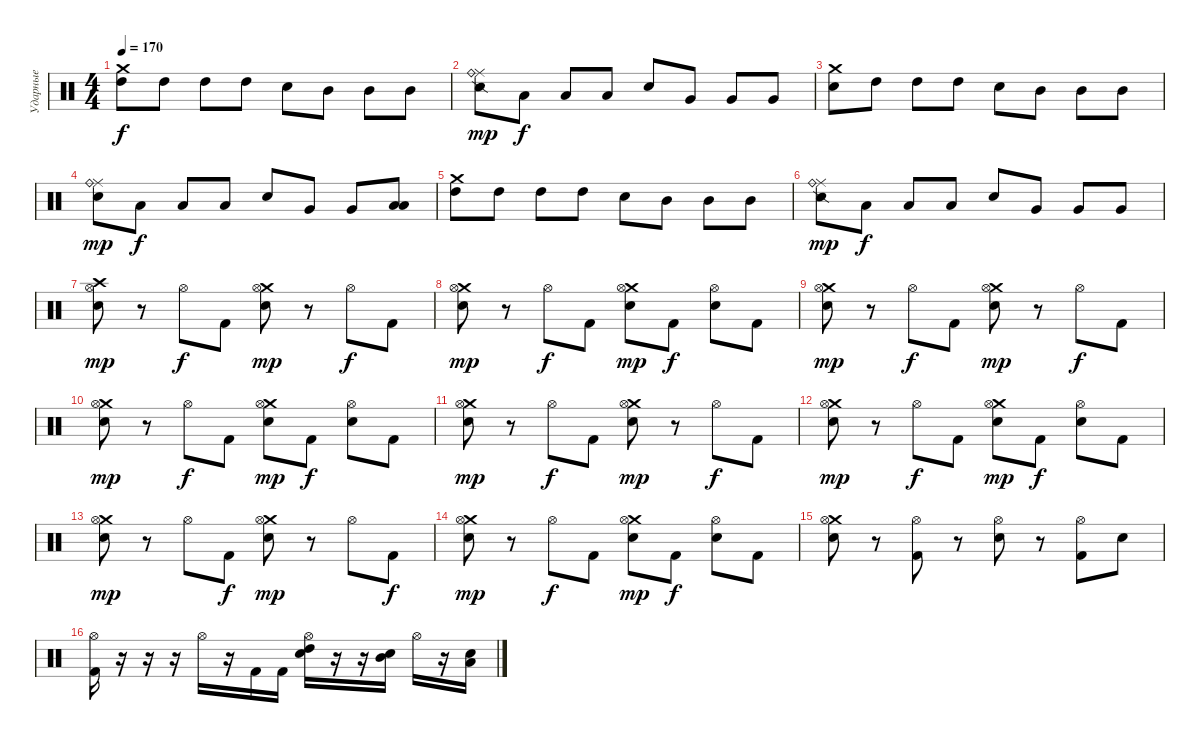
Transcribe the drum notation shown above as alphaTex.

\track ("Ударные" "Ударные") {instrument percussion}
\staff {score}
\articulation defaults
\ts (4 4)
\tempo 170
\clef neutral
\ks c
("Crash medium (hit)" "High Tom (hit)").8{dy f} "High Tom (hit)".8 "High Tom (hit)".8 "High Tom (hit)".8 "Electric Snare (hit)".8 "Mid Tom (hit)".8 "Mid Tom (hit)".8 "Mid Tom (hit)".8 |
("Ride (middle)" "Ride (bell)" "Snare (side stick) 2").8{dy mp} "Low Tom (hit)".8{dy f} "Low Tom (hit)".8 "Low Tom (hit)".8 "Electric Snare (hit)".8 "Very Low Tom (hit)".8 "Very Low Tom (hit)".8 "Very Low Tom (hit)".8 |
("Crash medium (hit)" "Snare (hit) 2").8 "High Tom (hit)".8 "High Tom (hit)".8 "High Tom (hit)".8 "Electric Snare (hit)".8 "Mid Tom (hit)".8 "Mid Tom (hit)".8 "Mid Tom (hit)".8 |
("Ride (middle)" "Ride (bell)" "Metronome (bell)").8{dy mp} "Low Tom (hit)".8{dy f} "Low Tom (hit)".8 "Low Tom (hit)".8 "Electric Snare (hit)".8 "Very Low Tom (hit)".8 "Very Low Tom (hit)".8 ("Low Floor Tom (hit)" "Low Floor Tom (hit)").8 |
("Crash medium (hit)" "High Tom (hit)").8 "High Tom (hit)".8 "High Tom (hit)".8 "High Tom (hit)".8 "Electric Snare (hit)".8 "Mid Tom (hit)".8 "Mid Tom (hit)".8 "Mid Tom (hit)".8 |
("Ride (middle)" "Ride (bell)" "Snare (side stick) 2").8{dy mp} "Low Tom (hit)".8{dy f} "Low Tom (hit)".8 "Low Tom (hit)".8 "Electric Snare (hit)".8 "Very Low Tom (hit)".8 "Very Low Tom (hit)".8 "Very Low Tom (hit)".8 |
("Crash high (hit)" "Hi-Hat (open)" "Snare (hit) 2").8{dy mp} r.8 "Hi-Hat (open)".8{dy f} "Kick (hit) 2".8 ("Crash medium (hit)" "Hi-Hat (open)" "Electric Snare (hit)").8{dy mp} r.8 "Hi-Hat (open)".8{dy f} "Kick (hit) 2".8 |
("Crash medium (hit)" "Hi-Hat (open)" "Snare (hit) 2").8{dy mp} r.8 "Hi-Hat (open)".8{dy f} "Kick (hit) 2".8 ("Crash medium (hit)" "Hi-Hat (open)" "Electric Snare (hit)").8{dy mp} "Kick (hit) 2".8{dy f} ("Hi-Hat (open)" "Electric Snare (hit)").8 "Kick (hit) 2".8 |
("Crash medium (hit)" "Hi-Hat (open)" "Snare (hit) 2").8{dy mp} r.8 "Hi-Hat (open)".8{dy f} "Kick (hit) 2".8 ("Crash medium (hit)" "Hi-Hat (open)" "Electric Snare (hit)").8{dy mp} r.8 "Hi-Hat (open)".8{dy f} "Kick (hit) 2".8 |
("Crash medium (hit)" "Hi-Hat (open)" "Snare (hit) 2").8{dy mp} r.8 "Hi-Hat (open)".8{dy f} "Kick (hit) 2".8 ("Crash medium (hit)" "Hi-Hat (open)" "Electric Snare (hit)").8{dy mp} "Kick (hit) 2".8{dy f} ("Hi-Hat (open)" "Electric Snare (hit)").8 "Kick (hit) 2".8 |
("Crash medium (hit)" "Hi-Hat (open)" "Snare (hit) 2").8{dy mp} r.8 "Hi-Hat (open)".8{dy f} "Kick (hit) 2".8 ("Crash medium (hit)" "Hi-Hat (open)" "Electric Snare (hit)").8{dy mp} r.8 "Hi-Hat (open)".8{dy f} "Kick (hit) 2".8 |
("Crash medium (hit)" "Hi-Hat (open)" "Snare (hit) 2").8{dy mp} r.8 "Hi-Hat (open)".8{dy f} "Kick (hit) 2".8 ("Crash medium (hit)" "Hi-Hat (open)" "Electric Snare (hit)").8{dy mp} "Kick (hit) 2".8{dy f} ("Hi-Hat (open)" "Electric Snare (hit)").8 "Kick (hit) 2".8 |
("Crash medium (hit)" "Hi-Hat (open)" "Snare (hit) 2").8{dy mp} r.8 "Hi-Hat (open)".8 "Kick (hit) 2".8{dy f} ("Crash medium (hit)" "Hi-Hat (open)" "Electric Snare (hit)").8{dy mp} r.8 "Hi-Hat (open)".8 "Kick (hit) 2".8{dy f} |
("Crash medium (hit)" "Hi-Hat (open)" "Snare (hit) 2").8{dy mp} r.8 "Hi-Hat (open)".8{dy f} "Kick (hit) 2".8 ("Crash medium (hit)" "Hi-Hat (open)" "Electric Snare (hit)").8{dy mp} "Kick (hit) 2".8{dy f} ("Hi-Hat (open)" "Electric Snare (hit)").8 "Kick (hit) 2".8 |
("Crash medium (hit)" "Hi-Hat (open)" "Snare (hit) 2").8 r.8 ("Hi-Hat (open)" "Kick (hit) 2").8 r.8 ("Hi-Hat (open)" "Electric Snare (hit)").8 r.8 ("Hi-Hat (open)" "Kick (hit) 2").8 "Electric Snare (hit)".8 |
("Hi-Hat (open)" "Kick (hit) 2").16 r.16 r.16 r.16 "Hi-Hat (open)".16 r.16 "Kick (hit) 2".16 "Kick (hit) 2".16 ("Hi-Hat (open)" "Electric Snare (hit)" "High Tom (hit)").16 r.16 r.16 ("Electric Snare (hit)" "Mid Tom (hit)").16 "Hi-Hat (open)".16 r.16 ("Electric Snare (hit)" "Low Tom (hit)").16
